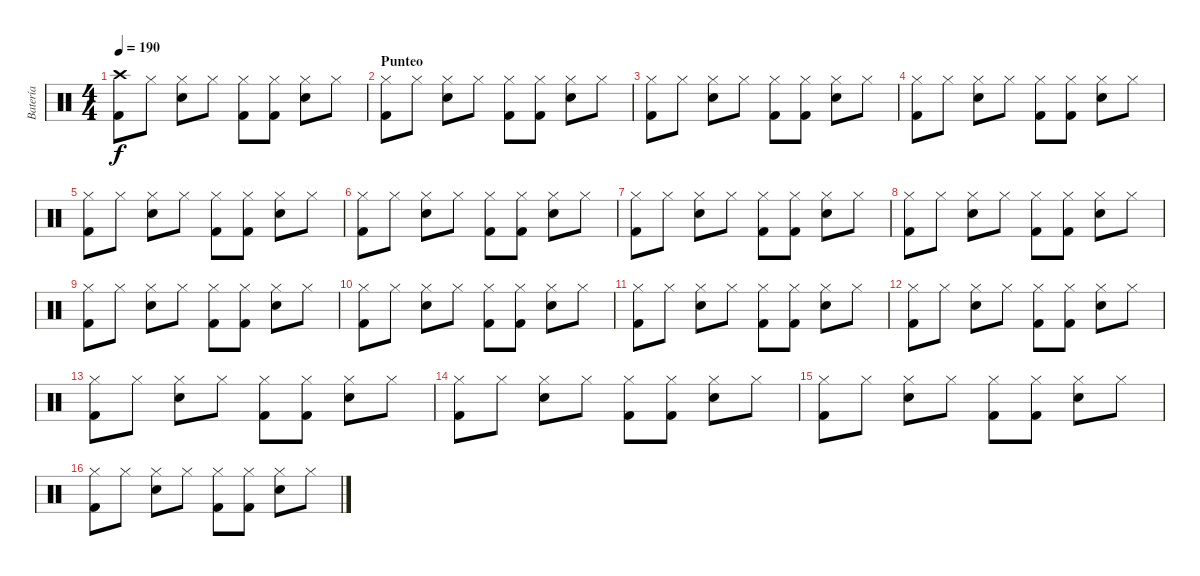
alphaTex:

\track ("Batería" "Batería") {instrument percussion}
\staff {score}
\articulation defaults
\ts (4 4)
\tempo 190
\clef neutral
\ks c
("Crash high (hit)" "Kick (hit) 2").8{dy f} "Hi-Hat (closed)".8 ("Hi-Hat (closed)" "Snare (hit) 2").8 "Hi-Hat (closed)".8 ("Hi-Hat (closed)" "Kick (hit) 2").8 ("Hi-Hat (closed)" "Kick (hit) 2").8 ("Hi-Hat (closed)" "Snare (hit) 2").8 "Hi-Hat (closed)".8 |
\section ("" "Punteo")
("Hi-Hat (closed)" "Kick (hit) 2").8 "Hi-Hat (closed)".8 ("Hi-Hat (closed)" "Snare (hit) 2").8 "Hi-Hat (closed)".8 ("Hi-Hat (closed)" "Kick (hit) 2").8 ("Hi-Hat (closed)" "Kick (hit) 2").8 ("Hi-Hat (closed)" "Snare (hit) 2").8 "Hi-Hat (closed)".8 |
("Hi-Hat (closed)" "Kick (hit) 2").8 "Hi-Hat (closed)".8 ("Hi-Hat (closed)" "Snare (hit) 2").8 "Hi-Hat (closed)".8 ("Hi-Hat (closed)" "Kick (hit) 2").8 ("Hi-Hat (closed)" "Kick (hit) 2").8 ("Hi-Hat (closed)" "Snare (hit) 2").8 "Hi-Hat (closed)".8 |
("Hi-Hat (closed)" "Kick (hit) 2").8 "Hi-Hat (closed)".8 ("Hi-Hat (closed)" "Snare (hit) 2").8 "Hi-Hat (closed)".8 ("Hi-Hat (closed)" "Kick (hit) 2").8 ("Hi-Hat (closed)" "Kick (hit) 2").8 ("Hi-Hat (closed)" "Snare (hit) 2").8 "Hi-Hat (closed)".8 |
("Hi-Hat (closed)" "Kick (hit) 2").8 "Hi-Hat (closed)".8 ("Hi-Hat (closed)" "Snare (hit) 2").8 "Hi-Hat (closed)".8 ("Hi-Hat (closed)" "Kick (hit) 2").8 ("Hi-Hat (closed)" "Kick (hit) 2").8 ("Hi-Hat (closed)" "Snare (hit) 2").8 "Hi-Hat (closed)".8 |
("Hi-Hat (closed)" "Kick (hit) 2").8 "Hi-Hat (closed)".8 ("Hi-Hat (closed)" "Snare (hit) 2").8 "Hi-Hat (closed)".8 ("Hi-Hat (closed)" "Kick (hit) 2").8 ("Hi-Hat (closed)" "Kick (hit) 2").8 ("Hi-Hat (closed)" "Snare (hit) 2").8 "Hi-Hat (closed)".8 |
("Hi-Hat (closed)" "Kick (hit) 2").8 "Hi-Hat (closed)".8 ("Hi-Hat (closed)" "Snare (hit) 2").8 "Hi-Hat (closed)".8 ("Hi-Hat (closed)" "Kick (hit) 2").8 ("Hi-Hat (closed)" "Kick (hit) 2").8 ("Hi-Hat (closed)" "Snare (hit) 2").8 "Hi-Hat (closed)".8 |
("Hi-Hat (closed)" "Kick (hit) 2").8 "Hi-Hat (closed)".8 ("Hi-Hat (closed)" "Snare (hit) 2").8 "Hi-Hat (closed)".8 ("Hi-Hat (closed)" "Kick (hit) 2").8 ("Hi-Hat (closed)" "Kick (hit) 2").8 ("Hi-Hat (closed)" "Snare (hit) 2").8 "Hi-Hat (closed)".8 |
("Hi-Hat (closed)" "Kick (hit) 2").8 "Hi-Hat (closed)".8 ("Hi-Hat (closed)" "Snare (hit) 2").8 "Hi-Hat (closed)".8 ("Hi-Hat (closed)" "Kick (hit) 2").8 ("Hi-Hat (closed)" "Kick (hit) 2").8 ("Hi-Hat (closed)" "Snare (hit) 2").8 "Hi-Hat (closed)".8 |
("Hi-Hat (closed)" "Kick (hit) 2").8 "Hi-Hat (closed)".8 ("Hi-Hat (closed)" "Snare (hit) 2").8 "Hi-Hat (closed)".8 ("Hi-Hat (closed)" "Kick (hit) 2").8 ("Hi-Hat (closed)" "Kick (hit) 2").8 ("Hi-Hat (closed)" "Snare (hit) 2").8 "Hi-Hat (closed)".8 |
("Hi-Hat (closed)" "Kick (hit) 2").8 "Hi-Hat (closed)".8 ("Hi-Hat (closed)" "Snare (hit) 2").8 "Hi-Hat (closed)".8 ("Hi-Hat (closed)" "Kick (hit) 2").8 ("Hi-Hat (closed)" "Kick (hit) 2").8 ("Hi-Hat (closed)" "Snare (hit) 2").8 "Hi-Hat (closed)".8 |
("Hi-Hat (closed)" "Kick (hit) 2").8 "Hi-Hat (closed)".8 ("Hi-Hat (closed)" "Snare (hit) 2").8 "Hi-Hat (closed)".8 ("Hi-Hat (closed)" "Kick (hit) 2").8 ("Hi-Hat (closed)" "Kick (hit) 2").8 ("Hi-Hat (closed)" "Snare (hit) 2").8 "Hi-Hat (closed)".8 |
("Hi-Hat (closed)" "Kick (hit) 2").8 "Hi-Hat (closed)".8 ("Hi-Hat (closed)" "Snare (hit) 2").8 "Hi-Hat (closed)".8 ("Hi-Hat (closed)" "Kick (hit) 2").8 ("Hi-Hat (closed)" "Kick (hit) 2").8 ("Hi-Hat (closed)" "Snare (hit) 2").8 "Hi-Hat (closed)".8 |
("Hi-Hat (closed)" "Kick (hit) 2").8 "Hi-Hat (closed)".8 ("Hi-Hat (closed)" "Snare (hit) 2").8 "Hi-Hat (closed)".8 ("Hi-Hat (closed)" "Kick (hit) 2").8 ("Hi-Hat (closed)" "Kick (hit) 2").8 ("Hi-Hat (closed)" "Snare (hit) 2").8 "Hi-Hat (closed)".8 |
("Hi-Hat (closed)" "Kick (hit) 2").8 "Hi-Hat (closed)".8 ("Hi-Hat (closed)" "Snare (hit) 2").8 "Hi-Hat (closed)".8 ("Hi-Hat (closed)" "Kick (hit) 2").8 ("Hi-Hat (closed)" "Kick (hit) 2").8 ("Hi-Hat (closed)" "Snare (hit) 2").8 "Hi-Hat (closed)".8 |
("Hi-Hat (closed)" "Kick (hit) 2").8 "Hi-Hat (closed)".8 ("Hi-Hat (closed)" "Snare (hit) 2").8 "Hi-Hat (closed)".8 ("Hi-Hat (closed)" "Kick (hit) 2").8 ("Hi-Hat (closed)" "Kick (hit) 2").8 ("Hi-Hat (closed)" "Snare (hit) 2").8 "Hi-Hat (closed)".8
